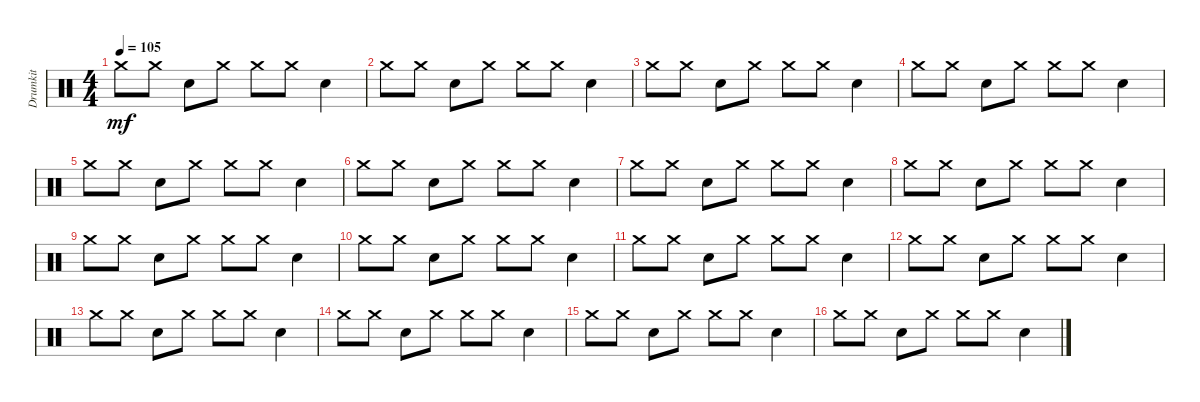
\track ("Drumkit" "Drumkit") {instrument percussion}
\staff {score}
\articulation defaults
\ts (4 4)
\tempo 105
\clef neutral
\ks c "Crash medium (hit)".8{dy mf} "Crash medium (hit)".8 "Snare (hit) 2".8 "Crash medium (hit)".8 "Crash medium (hit)".8 "Crash medium (hit)".8 "Snare (hit) 2".4
|
"Crash medium (hit)".8 "Crash medium (hit)".8 "Snare (hit) 2".8 "Crash medium (hit)".8 "Crash medium (hit)".8 "Crash medium (hit)".8 "Snare (hit) 2".4 |
"Crash medium (hit)".8 "Crash medium (hit)".8 "Snare (hit) 2".8 "Crash medium (hit)".8 "Crash medium (hit)".8 "Crash medium (hit)".8 "Snare (hit) 2".4 |
"Crash medium (hit)".8 "Crash medium (hit)".8 "Snare (hit) 2".8 "Crash medium (hit)".8 "Crash medium (hit)".8 "Crash medium (hit)".8 "Snare (hit) 2".4 |
"Crash medium (hit)".8 "Crash medium (hit)".8 "Snare (hit) 2".8 "Crash medium (hit)".8 "Crash medium (hit)".8 "Crash medium (hit)".8 "Snare (hit) 2".4 |
"Crash medium (hit)".8 "Crash medium (hit)".8 "Snare (hit) 2".8 "Crash medium (hit)".8 "Crash medium (hit)".8 "Crash medium (hit)".8 "Snare (hit) 2".4 |
"Crash medium (hit)".8 "Crash medium (hit)".8 "Snare (hit) 2".8 "Crash medium (hit)".8 "Crash medium (hit)".8 "Crash medium (hit)".8 "Snare (hit) 2".4 |
"Crash medium (hit)".8 "Crash medium (hit)".8 "Snare (hit) 2".8 "Crash medium (hit)".8 "Crash medium (hit)".8 "Crash medium (hit)".8 "Snare (hit) 2".4 |
"Crash medium (hit)".8 "Crash medium (hit)".8 "Snare (hit) 2".8 "Crash medium (hit)".8 "Crash medium (hit)".8 "Crash medium (hit)".8 "Snare (hit) 2".4 |
"Crash medium (hit)".8 "Crash medium (hit)".8 "Snare (hit) 2".8 "Crash medium (hit)".8 "Crash medium (hit)".8 "Crash medium (hit)".8 "Snare (hit) 2".4 |
"Crash medium (hit)".8 "Crash medium (hit)".8 "Snare (hit) 2".8 "Crash medium (hit)".8 "Crash medium (hit)".8 "Crash medium (hit)".8 "Snare (hit) 2".4 |
"Crash medium (hit)".8 "Crash medium (hit)".8 "Snare (hit) 2".8 "Crash medium (hit)".8 "Crash medium (hit)".8 "Crash medium (hit)".8 "Snare (hit) 2".4 |
"Crash medium (hit)".8 "Crash medium (hit)".8 "Snare (hit) 2".8 "Crash medium (hit)".8 "Crash medium (hit)".8 "Crash medium (hit)".8 "Snare (hit) 2".4 |
"Crash medium (hit)".8 "Crash medium (hit)".8 "Snare (hit) 2".8 "Crash medium (hit)".8 "Crash medium (hit)".8 "Crash medium (hit)".8 "Snare (hit) 2".4 |
"Crash medium (hit)".8 "Crash medium (hit)".8 "Snare (hit) 2".8 "Crash medium (hit)".8 "Crash medium (hit)".8 "Crash medium (hit)".8 "Snare (hit) 2".4 |
"Crash medium (hit)".8 "Crash medium (hit)".8 "Snare (hit) 2".8 "Crash medium (hit)".8 "Crash medium (hit)".8 "Crash medium (hit)".8 "Snare (hit) 2".4
